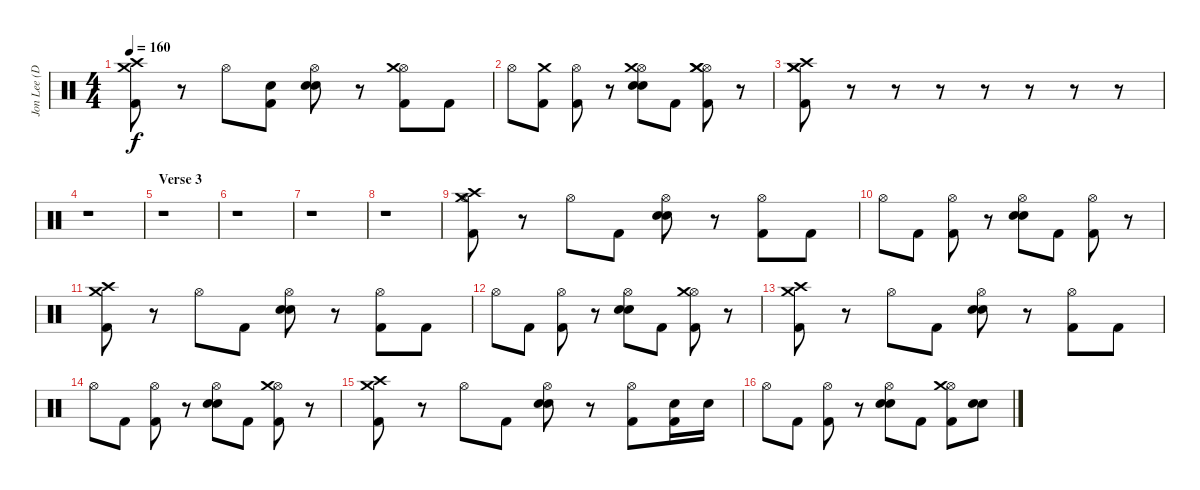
\track ("Jon Lee (Drums)" "Jon Lee (D") {instrument percussion}
\staff {score}
\articulation defaults
\ts (4 4)
\tempo 160
\clef neutral
\ks c
("Crash high (hit)" "Crash medium (hit)" "Kick (hit) 2").8{dy f} r.8 "Hi-Hat (open)".8 ("Kick (hit) 2" "Electric Snare (hit)").8 ("Hi-Hat (open)" "Electric Snare (hit)" "Snare (hit) 2").8 r.8 ("Hi-Hat (open)" "Kick (hit) 2" "Crash medium (hit)").8 "Kick (hit) 2".8 |
"Hi-Hat (open)".8 ("Kick (hit) 2" "Crash medium (hit)").8 ("Hi-Hat (open)" "Kick (hit) 2").8 r.8 ("Hi-Hat (open)" "Electric Snare (hit)" "Snare (hit) 2" "Crash medium (hit)").8 "Kick (hit) 2".8 ("Hi-Hat (open)" "Crash medium (hit)" "Kick (hit) 2" "Crash medium (hit)").8 r.8 |
("Crash high (hit)" "Crash medium (hit)" "Kick (hit) 2" "Crash medium (hit)").8 r.8 r.8 r.8 r.8 r.8 r.8 r.8 |
r.1 |
\section ("" "Verse 3")
r.1 |
r.1 |
r.1 |
r.1 |
("Crash high (hit)" "Crash medium (hit)" "Kick (hit) 2" "Hi-Hat (open)").8 r.8 "Hi-Hat (open)".8 "Kick (hit) 2".8 ("Hi-Hat (open)" "Electric Snare (hit)" "Snare (hit) 2").8 r.8 ("Hi-Hat (open)" "Kick (hit) 2").8 "Kick (hit) 2".8 |
"Hi-Hat (open)".8 "Kick (hit) 2".8 ("Hi-Hat (open)" "Kick (hit) 2").8 r.8 ("Hi-Hat (open)" "Electric Snare (hit)" "Snare (hit) 2").8 "Kick (hit) 2".8 ("Hi-Hat (open)" "Kick (hit) 2").8 r.8 |
("Crash high (hit)" "Crash medium (hit)" "Kick (hit) 2").8 r.8 "Hi-Hat (open)".8 "Kick (hit) 2".8 ("Hi-Hat (open)" "Electric Snare (hit)" "Snare (hit) 2").8 r.8 ("Hi-Hat (open)" "Kick (hit) 2").8 "Kick (hit) 2".8 |
"Hi-Hat (open)".8 "Kick (hit) 2".8 ("Hi-Hat (open)" "Kick (hit) 2").8 r.8 ("Hi-Hat (open)" "Electric Snare (hit)" "Snare (hit) 2").8 "Kick (hit) 2".8 ("Hi-Hat (open)" "Crash medium (hit)" "Kick (hit) 2").8 r.8 |
("Crash high (hit)" "Crash medium (hit)" "Kick (hit) 2").8 r.8 "Hi-Hat (open)".8 "Kick (hit) 2".8 ("Hi-Hat (open)" "Electric Snare (hit)" "Snare (hit) 2").8 r.8 ("Hi-Hat (open)" "Kick (hit) 2").8 "Kick (hit) 2".8 |
"Hi-Hat (open)".8 "Kick (hit) 2".8 ("Hi-Hat (open)" "Kick (hit) 2").8 r.8 ("Hi-Hat (open)" "Electric Snare (hit)" "Snare (hit) 2").8 "Kick (hit) 2".8 ("Hi-Hat (open)" "Crash medium (hit)" "Kick (hit) 2").8 r.8 |
("Crash high (hit)" "Crash medium (hit)" "Kick (hit) 2").8 r.8 "Hi-Hat (open)".8 "Kick (hit) 2".8 ("Hi-Hat (open)" "Electric Snare (hit)" "Snare (hit) 2").8 r.8 ("Hi-Hat (open)" "Kick (hit) 2").8 ("Electric Snare (hit)" "Kick (hit) 2").16 "Electric Snare (hit)".16 |
"Hi-Hat (open)".8 "Kick (hit) 2".8 ("Hi-Hat (open)" "Kick (hit) 2").8 r.8 ("Hi-Hat (open)" "Electric Snare (hit)" "Snare (hit) 2").8 "Kick (hit) 2".8 ("Hi-Hat (open)" "Crash medium (hit)" "Kick (hit) 2").8 ("Electric Snare (hit)" "Snare (hit) 2").8
